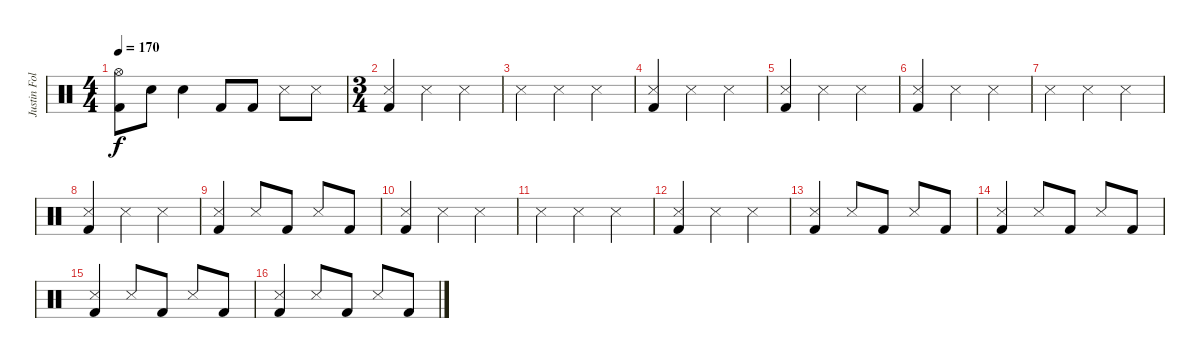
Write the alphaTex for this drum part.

\track ("Justin Foley" "Justin Fol") {instrument percussion}
\staff {score}
\articulation defaults
\ts (4 4)
\tempo 170
\clef neutral
\ks c
("Hi-Hat (open)" "Kick (hit) 2").8{dy f} "Snare (hit) 2".8 "Snare (hit) 2".4 "Kick (hit) 2".8 "Kick (hit) 2".8 "Snare (side stick) 3".8 "Snare (side stick) 3".8 |
\ts (3 4)
("Metronome (hit)" "Kick (hit) 2").4 "Metronome (hit)".4 "Metronome (hit)".4 |
"Metronome (hit)".4 "Metronome (hit)".4 "Metronome (hit)".4 |
("Metronome (hit)" "Kick (hit) 2").4 "Metronome (hit)".4 "Metronome (hit)".4 |
("Metronome (hit)" "Kick (hit) 2").4 "Metronome (hit)".4 "Metronome (hit)".4 |
("Metronome (hit)" "Kick (hit) 2").4 "Metronome (hit)".4 "Metronome (hit)".4 |
"Metronome (hit)".4 "Metronome (hit)".4 "Metronome (hit)".4 |
("Metronome (hit)" "Kick (hit) 2").4 "Metronome (hit)".4 "Metronome (hit)".4 |
("Metronome (hit)" "Kick (hit) 2").4 "Metronome (hit)".8 "Kick (hit) 2".8 "Metronome (hit)".8 "Kick (hit) 2".8 |
("Metronome (hit)" "Kick (hit) 2").4 "Metronome (hit)".4 "Metronome (hit)".4 |
"Metronome (hit)".4 "Metronome (hit)".4 "Metronome (hit)".4 |
("Metronome (hit)" "Kick (hit) 2").4 "Metronome (hit)".4 "Metronome (hit)".4 |
("Metronome (hit)" "Kick (hit) 2").4 "Metronome (hit)".8 "Kick (hit) 2".8 "Metronome (hit)".8 "Kick (hit) 2".8 |
("Metronome (hit)" "Kick (hit) 2").4 "Metronome (hit)".8 "Kick (hit) 2".8 "Metronome (hit)".8 "Kick (hit) 2".8 |
("Metronome (hit)" "Kick (hit) 2").4 "Metronome (hit)".8 "Kick (hit) 2".8 "Metronome (hit)".8 "Kick (hit) 2".8 |
("Metronome (hit)" "Kick (hit) 2").4 "Metronome (hit)".8 "Kick (hit) 2".8 "Metronome (hit)".8 "Kick (hit) 2".8
